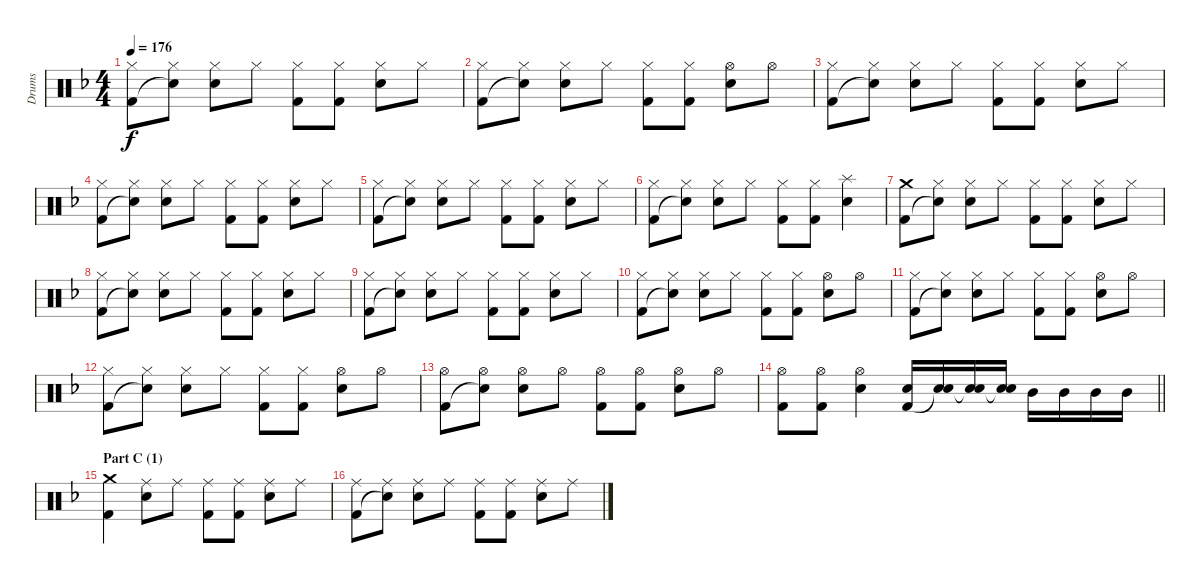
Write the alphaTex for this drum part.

\track ("Drums" "Drums") {instrument percussion}
\staff {score}
\articulation defaults
\ts (4 4)
\tempo 176
\clef neutral
\ks f
("Hi-Hat (closed)" "Kick (hit) 2").8{dy f} ("Hi-Hat (closed)" "Snare (hit)"{t}).8 ("Hi-Hat (closed)" "Electric Snare (hit)").8 "Hi-Hat (closed)".8 ("Hi-Hat (closed)" "Kick (hit) 2").8 ("Hi-Hat (closed)" "Kick (hit) 2").8 ("Hi-Hat (closed)" "Electric Snare (hit)").8 "Hi-Hat (closed)".8 |
("Hi-Hat (closed)" "Kick (hit) 2").8 ("Hi-Hat (closed)" "Snare (hit)"{t}).8 ("Hi-Hat (closed)" "Electric Snare (hit)").8 "Hi-Hat (closed)".8 ("Hi-Hat (closed)" "Kick (hit) 2").8 ("Hi-Hat (closed)" "Kick (hit) 2").8 ("Hi-Hat (open)" "Electric Snare (hit)").8 "Hi-Hat (open)".8 |
("Hi-Hat (closed)" "Kick (hit) 2").8 ("Hi-Hat (closed)" "Snare (hit)"{t}).8 ("Hi-Hat (closed)" "Electric Snare (hit)").8 "Hi-Hat (closed)".8 ("Hi-Hat (closed)" "Kick (hit) 2").8 ("Hi-Hat (closed)" "Kick (hit) 2").8 ("Hi-Hat (closed)" "Electric Snare (hit)").8 "Hi-Hat (closed)".8 |
("Hi-Hat (closed)" "Kick (hit) 2").8 ("Hi-Hat (closed)" "Snare (hit)"{t}).8 ("Hi-Hat (closed)" "Electric Snare (hit)").8 "Hi-Hat (closed)".8 ("Hi-Hat (closed)" "Kick (hit) 2").8 ("Hi-Hat (closed)" "Kick (hit) 2").8 ("Hi-Hat (closed)" "Electric Snare (hit)").8 "Hi-Hat (closed)".8 |
("Hi-Hat (closed)" "Kick (hit) 2").8 ("Hi-Hat (closed)" "Snare (hit)"{t}).8 ("Hi-Hat (closed)" "Electric Snare (hit)").8 "Hi-Hat (closed)".8 ("Hi-Hat (closed)" "Kick (hit) 2").8 ("Hi-Hat (closed)" "Kick (hit) 2").8 ("Hi-Hat (closed)" "Electric Snare (hit)").8 "Hi-Hat (closed)".8 |
("Hi-Hat (closed)" "Kick (hit) 2").8 ("Hi-Hat (closed)" "Snare (hit)"{t}).8 ("Hi-Hat (closed)" "Electric Snare (hit)").8 "Hi-Hat (closed)".8 ("Hi-Hat (closed)" "Kick (hit) 2").8 ("Hi-Hat (closed)" "Kick (hit) 2").8 ("Splash (hit)" "Electric Snare (hit)").4 |
("Crash medium (hit)" "Kick (hit) 2").8 ("Hi-Hat (closed)" "Snare (hit)"{t}).8 ("Hi-Hat (closed)" "Electric Snare (hit)").8 "Hi-Hat (closed)".8 ("Hi-Hat (closed)" "Kick (hit) 2").8 ("Hi-Hat (closed)" "Kick (hit) 2").8 ("Hi-Hat (closed)" "Electric Snare (hit)").8 "Hi-Hat (closed)".8 |
("Hi-Hat (closed)" "Kick (hit) 2").8 ("Hi-Hat (closed)" "Snare (hit)"{t}).8 ("Hi-Hat (closed)" "Electric Snare (hit)").8 "Hi-Hat (closed)".8 ("Hi-Hat (closed)" "Kick (hit) 2").8 ("Hi-Hat (closed)" "Kick (hit) 2").8 ("Hi-Hat (closed)" "Electric Snare (hit)").8 "Hi-Hat (closed)".8 |
("Hi-Hat (closed)" "Kick (hit) 2").8 ("Hi-Hat (closed)" "Snare (hit)"{t}).8 ("Hi-Hat (closed)" "Electric Snare (hit)").8 "Hi-Hat (closed)".8 ("Hi-Hat (closed)" "Kick (hit) 2").8 ("Hi-Hat (closed)" "Kick (hit) 2").8 ("Hi-Hat (closed)" "Electric Snare (hit)").8 "Hi-Hat (closed)".8 |
("Hi-Hat (closed)" "Kick (hit) 2").8 ("Hi-Hat (closed)" "Snare (hit)"{t}).8 ("Hi-Hat (closed)" "Electric Snare (hit)").8 "Hi-Hat (closed)".8 ("Hi-Hat (closed)" "Kick (hit) 2").8 ("Hi-Hat (closed)" "Kick (hit) 2").8 ("Hi-Hat (open)" "Electric Snare (hit)").8 "Hi-Hat (open)".8 |
("Hi-Hat (closed)" "Kick (hit) 2").8 ("Hi-Hat (closed)" "Snare (hit)"{t}).8 ("Hi-Hat (closed)" "Electric Snare (hit)").8 "Hi-Hat (closed)".8 ("Hi-Hat (closed)" "Kick (hit) 2").8 ("Hi-Hat (closed)" "Kick (hit) 2").8 ("Hi-Hat (open)" "Electric Snare (hit)").8 "Hi-Hat (open)".8 |
("Hi-Hat (closed)" "Kick (hit) 2").8 ("Hi-Hat (closed)" "Snare (hit)"{t}).8 ("Hi-Hat (closed)" "Electric Snare (hit)").8 "Hi-Hat (closed)".8 ("Hi-Hat (closed)" "Kick (hit) 2").8 ("Hi-Hat (closed)" "Kick (hit) 2").8 ("Hi-Hat (open)" "Electric Snare (hit)").8 "Hi-Hat (open)".8 |
("Hi-Hat (open)" "Kick (hit) 2").8 ("Hi-Hat (open)" "Snare (hit)"{t}).8 ("Hi-Hat (open)" "Electric Snare (hit)").8 "Hi-Hat (open)".8 ("Hi-Hat (open)" "Kick (hit) 2").8 ("Hi-Hat (open)" "Kick (hit) 2").8 ("Hi-Hat (open)" "Electric Snare (hit)").8 "Hi-Hat (open)".8 |
\barLineRight lightlight
("Hi-Hat (open)" "Kick (hit) 2").8 ("Hi-Hat (open)" "Kick (hit) 2").8 ("Hi-Hat (open)" "Electric Snare (hit)").4 ("Electric Snare (hit)" "Kick (hit) 2").16 ("Electric Snare (hit)" "Snare (hit)"{t}).16 ("Electric Snare (hit)" "Snare (hit)"{t}).16 ("Electric Snare (hit)" "Snare (hit)"{t}).16 "Mid Tom (hit)".16 "Mid Tom (hit)".16 "Mid Tom (hit)".16 "Mid Tom (hit)".16 |
\section ("" "Part C (1)")
("Crash medium (hit)" "Kick (hit) 2").4 ("Ride (middle)" "Electric Snare (hit)").8 "Ride (middle)".8 ("Ride (middle)" "Kick (hit) 2").8 ("Ride (middle)" "Kick (hit) 2").8 ("Ride (middle)" "Electric Snare (hit)").8 "Ride (middle)".8 |
("Ride (middle)" "Kick (hit) 2").8 ("Ride (middle)" "Snare (hit)"{t}).8 ("Ride (middle)" "Electric Snare (hit)").8 "Ride (middle)".8 ("Ride (middle)" "Kick (hit) 2").8 ("Ride (middle)" "Kick (hit) 2").8 ("Ride (middle)" "Electric Snare (hit)").8 "Ride (middle)".8
